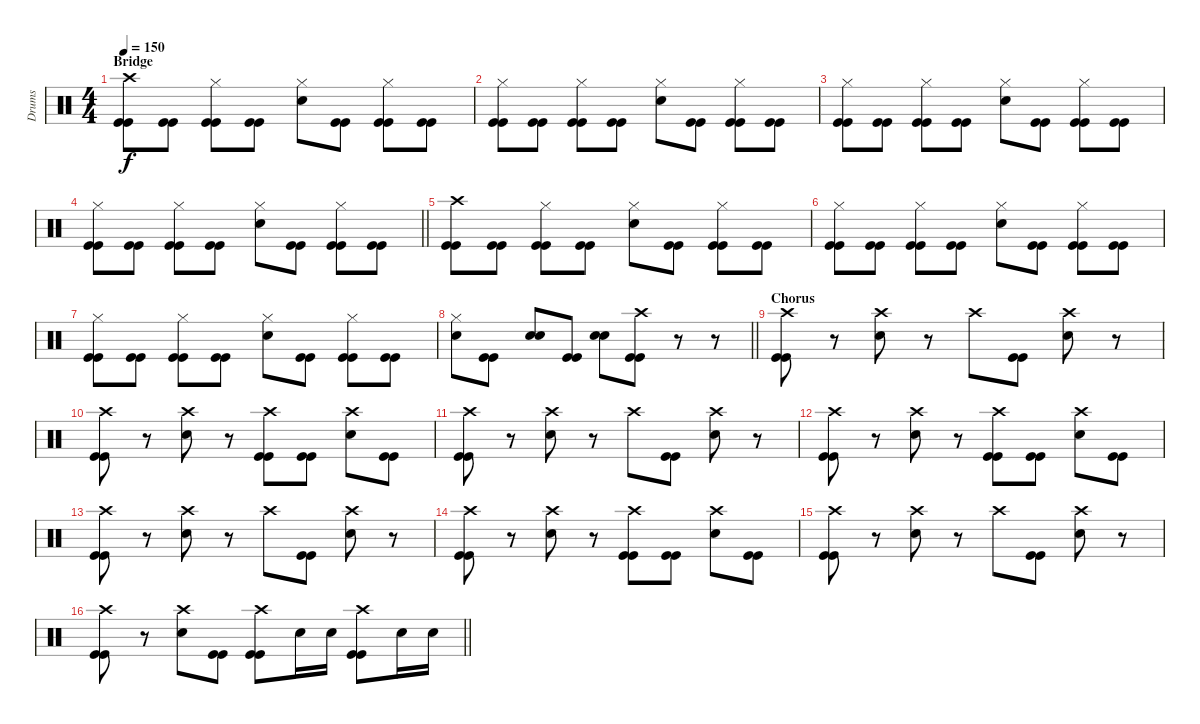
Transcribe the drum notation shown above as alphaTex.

\track ("Drums" "Drums") {instrument percussion}
\staff {score}
\articulation defaults
\ts (4 4)
\section ("" "Bridge")
\tempo 150
\clef neutral
\ks c
("Crash high (hit)" "Kick (hit)" "Kick (hit)").8{dy f} ("Kick (hit)" "Kick (hit)").8 ("Hi-Hat (closed)" "Kick (hit)" "Kick (hit)").8 ("Kick (hit)" "Kick (hit)").8 ("Hi-Hat (closed)" "Snare (hit) 2").8 ("Kick (hit)" "Kick (hit)").8 ("Hi-Hat (closed)" "Kick (hit)" "Kick (hit)").8 ("Kick (hit)" "Kick (hit)").8 |
("Hi-Hat (closed)" "Kick (hit)" "Kick (hit)").8 ("Kick (hit)" "Kick (hit)").8 ("Hi-Hat (closed)" "Kick (hit)" "Kick (hit)").8 ("Kick (hit)" "Kick (hit)").8 ("Hi-Hat (closed)" "Snare (hit) 2").8 ("Kick (hit)" "Kick (hit)").8 ("Hi-Hat (closed)" "Kick (hit)" "Kick (hit)").8 ("Kick (hit)" "Kick (hit)").8 |
("Hi-Hat (closed)" "Kick (hit)" "Kick (hit)").8 ("Kick (hit)" "Kick (hit)").8 ("Hi-Hat (closed)" "Kick (hit)" "Kick (hit)").8 ("Kick (hit)" "Kick (hit)").8 ("Hi-Hat (closed)" "Snare (hit) 2").8 ("Kick (hit)" "Kick (hit)").8 ("Hi-Hat (closed)" "Kick (hit)" "Kick (hit)").8 ("Kick (hit)" "Kick (hit)").8 |
\barLineRight lightlight
("Hi-Hat (closed)" "Kick (hit)" "Kick (hit)").8 ("Kick (hit)" "Kick (hit)").8 ("Hi-Hat (closed)" "Kick (hit)" "Kick (hit)").8 ("Kick (hit)" "Kick (hit)").8 ("Hi-Hat (closed)" "Snare (hit) 2").8 ("Kick (hit)" "Kick (hit)").8 ("Hi-Hat (closed)" "Kick (hit)" "Kick (hit)").8 ("Kick (hit)" "Kick (hit)").8 |
("Crash high (hit)" "Kick (hit)" "Kick (hit)").8 ("Kick (hit)" "Kick (hit)").8 ("Hi-Hat (closed)" "Kick (hit)" "Kick (hit)").8 ("Kick (hit)" "Kick (hit)").8 ("Hi-Hat (closed)" "Snare (hit) 2").8 ("Kick (hit)" "Kick (hit)").8 ("Hi-Hat (closed)" "Kick (hit)" "Kick (hit)").8 ("Kick (hit)" "Kick (hit)").8 |
("Hi-Hat (closed)" "Kick (hit)" "Kick (hit)").8 ("Kick (hit)" "Kick (hit)").8 ("Hi-Hat (closed)" "Kick (hit)" "Kick (hit)").8 ("Kick (hit)" "Kick (hit)").8 ("Hi-Hat (closed)" "Snare (hit) 2").8 ("Kick (hit)" "Kick (hit)").8 ("Hi-Hat (closed)" "Kick (hit)" "Kick (hit)").8 ("Kick (hit)" "Kick (hit)").8 |
("Hi-Hat (closed)" "Kick (hit)" "Kick (hit)").8 ("Kick (hit)" "Kick (hit)").8 ("Hi-Hat (closed)" "Kick (hit)" "Kick (hit)").8 ("Kick (hit)" "Kick (hit)").8 ("Hi-Hat (closed)" "Snare (hit) 2").8 ("Kick (hit)" "Kick (hit)").8 ("Hi-Hat (closed)" "Kick (hit)" "Kick (hit)").8 ("Kick (hit)" "Kick (hit)").8 |
\barLineRight lightlight
("Hi-Hat (closed)" "Snare (hit) 2").8 ("Kick (hit)" "Kick (hit)").8 ("Snare (hit) 2" "Snare (hit) 2").8 ("Kick (hit)" "Kick (hit)").8 ("Snare (hit) 2" "Snare (hit) 2").8 ("Crash high (hit)" "Kick (hit)" "Kick (hit)").8 r.8 r.8 |
\section ("" "Chorus")
("Crash high (hit)" "Kick (hit)" "Kick (hit)").8 r.8 ("Crash high (hit)" "Snare (hit) 2").8 r.8 "Crash high (hit)".8 ("Kick (hit)" "Kick (hit)").8 ("Crash high (hit)" "Snare (hit) 2").8 r.8 |
("Crash high (hit)" "Kick (hit)" "Kick (hit)").8 r.8 ("Crash high (hit)" "Snare (hit) 2").8 r.8 ("Crash high (hit)" "Kick (hit)" "Kick (hit)").8 ("Kick (hit)" "Kick (hit)").8 ("Crash high (hit)" "Snare (hit) 2").8 ("Kick (hit)" "Kick (hit)").8 |
("Crash high (hit)" "Kick (hit)" "Kick (hit)").8 r.8 ("Crash high (hit)" "Snare (hit) 2").8 r.8 "Crash high (hit)".8 ("Kick (hit)" "Kick (hit)").8 ("Crash high (hit)" "Snare (hit) 2").8 r.8 |
("Crash high (hit)" "Kick (hit)" "Kick (hit)").8 r.8 ("Crash high (hit)" "Snare (hit) 2").8 r.8 ("Crash high (hit)" "Kick (hit)" "Kick (hit)").8 ("Kick (hit)" "Kick (hit)").8 ("Crash high (hit)" "Snare (hit) 2").8 ("Kick (hit)" "Kick (hit)").8 |
("Crash high (hit)" "Kick (hit)" "Kick (hit)").8 r.8 ("Crash high (hit)" "Snare (hit) 2").8 r.8 "Crash high (hit)".8 ("Kick (hit)" "Kick (hit)").8 ("Crash high (hit)" "Snare (hit) 2").8 r.8 |
("Crash high (hit)" "Kick (hit)" "Kick (hit)").8 r.8 ("Crash high (hit)" "Snare (hit) 2").8 r.8 ("Crash high (hit)" "Kick (hit)" "Kick (hit)").8 ("Kick (hit)" "Kick (hit)").8 ("Crash high (hit)" "Snare (hit) 2").8 ("Kick (hit)" "Kick (hit)").8 |
("Crash high (hit)" "Kick (hit)" "Kick (hit)").8 r.8 ("Crash high (hit)" "Snare (hit) 2").8 r.8 "Crash high (hit)".8 ("Kick (hit)" "Kick (hit)").8 ("Crash high (hit)" "Snare (hit) 2").8 r.8 |
\barLineRight lightlight
("Crash high (hit)" "Kick (hit)" "Kick (hit)").8 r.8 ("Crash high (hit)" "Snare (hit) 2").8 ("Kick (hit)" "Kick (hit)").8 ("Crash high (hit)" "Kick (hit)" "Kick (hit)").8 "Snare (hit) 2".16 "Snare (hit) 2".16 ("Crash high (hit)" "Kick (hit)" "Kick (hit)").8 "Snare (hit) 2".16 "Snare (hit) 2".16
